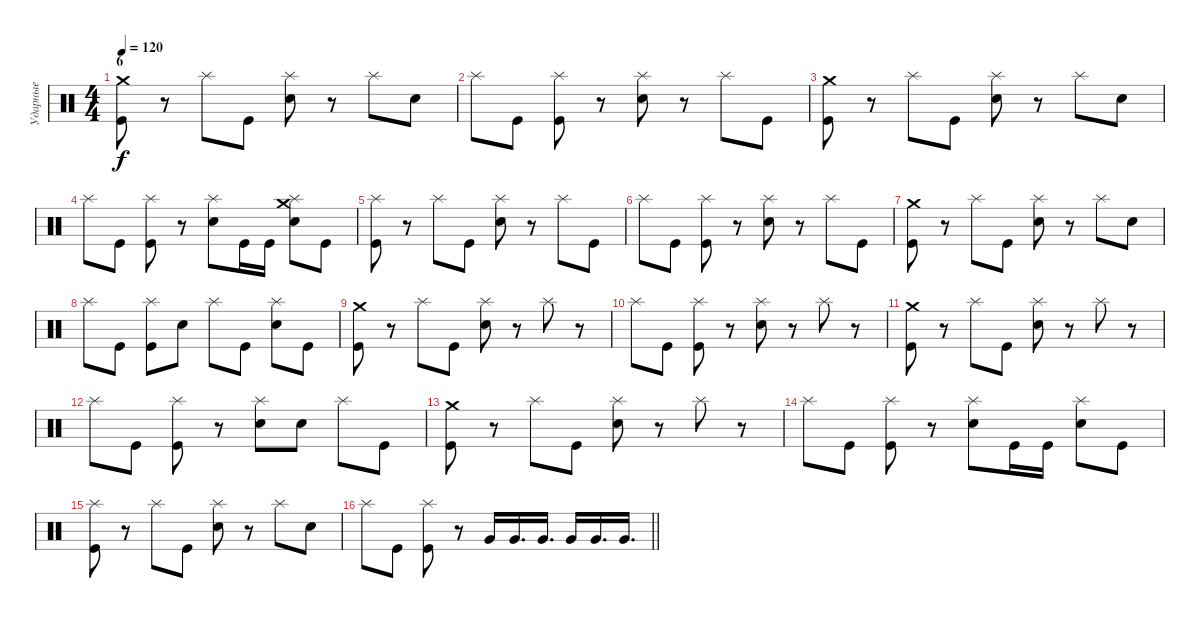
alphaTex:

\track ("Ударные" "Ударные") {instrument percussion}
\staff {score}
\articulation defaults
\ts (4 4)
\section ("" "6")
\tempo 120
\clef neutral
\ks c
("Crash medium (hit)" "Kick (hit)").8{dy f} r.8 "Splash (hit)".8 "Kick (hit)".8 ("Splash (hit)" "Electric Snare (hit)").8 r.8 "Splash (hit)".8 "Electric Snare (hit)".8 |
"Splash (hit)".8 "Kick (hit)".8 ("Splash (hit)" "Kick (hit)").8 r.8 ("Splash (hit)" "Electric Snare (hit)").8 r.8 "Splash (hit)".8 "Kick (hit)".8 |
("Crash medium (hit)" "Kick (hit)").8 r.8 "Splash (hit)".8 "Kick (hit)".8 ("Splash (hit)" "Electric Snare (hit)").8 r.8 "Splash (hit)".8 "Electric Snare (hit)".8 |
"Splash (hit)".8 "Kick (hit)".8 ("Splash (hit)" "Kick (hit)").8 r.8 ("Splash (hit)" "Electric Snare (hit)").8 "Kick (hit)".16 "Kick (hit)".16 ("Crash medium (hit)" "Splash (hit)" "Electric Snare (hit)").8 "Kick (hit)".8 |
("Splash (hit)" "Kick (hit)").8 r.8 "Splash (hit)".8 "Kick (hit)".8 ("Splash (hit)" "Electric Snare (hit)").8 r.8 "Splash (hit)".8 "Kick (hit)".8 |
"Splash (hit)".8 "Kick (hit)".8 ("Splash (hit)" "Kick (hit)").8 r.8 ("Splash (hit)" "Electric Snare (hit)").8 r.8 "Splash (hit)".8 "Kick (hit)".8 |
("Crash medium (hit)" "Kick (hit)").8 r.8 "Splash (hit)".8 "Kick (hit)".8 ("Splash (hit)" "Electric Snare (hit)").8 r.8 "Splash (hit)".8 "Electric Snare (hit)".8 |
"Splash (hit)".8 "Kick (hit)".8 ("Splash (hit)" "Kick (hit)").8 "Electric Snare (hit)".8 "Splash (hit)".8 "Kick (hit)".8 ("Splash (hit)" "Electric Snare (hit)").8 "Kick (hit)".8 |
("Crash medium (hit)" "Kick (hit)").8 r.8 "Splash (hit)".8 "Kick (hit)".8 ("Splash (hit)" "Electric Snare (hit)").8 r.8 "Splash (hit)".8 r.8 |
"Splash (hit)".8 "Kick (hit)".8 ("Splash (hit)" "Kick (hit)").8 r.8 ("Splash (hit)" "Electric Snare (hit)").8 r.8 "Splash (hit)".8 r.8 |
("Crash medium (hit)" "Kick (hit)").8 r.8 "Splash (hit)".8 "Kick (hit)".8 ("Splash (hit)" "Electric Snare (hit)").8 r.8 "Splash (hit)".8 r.8 |
"Splash (hit)".8 "Kick (hit)".8 ("Splash (hit)" "Kick (hit)").8 r.8 ("Splash (hit)" "Electric Snare (hit)").8 "Electric Snare (hit)".8 "Splash (hit)".8 "Kick (hit)".8 |
("Crash medium (hit)" "Kick (hit)").8 r.8 "Splash (hit)".8 "Kick (hit)".8 ("Splash (hit)" "Electric Snare (hit)").8 r.8 "Splash (hit)".8 r.8 |
"Splash (hit)".8 "Kick (hit)".8 ("Splash (hit)" "Kick (hit)").8 r.8 ("Splash (hit)" "Electric Snare (hit)").8 "Kick (hit)".16 "Kick (hit)".16 ("Splash (hit)" "Electric Snare (hit)").8 "Kick (hit)".8 |
("Splash (hit)" "Kick (hit)").8 r.8 "Splash (hit)".8 "Kick (hit)".8 ("Splash (hit)" "Electric Snare (hit)").8 r.8 "Splash (hit)".8 "Electric Snare (hit)".8 |
\barLineRight lightlight "Splash (hit)".8 "Kick (hit)".8
("Splash (hit)" "Kick (hit)").8 r.8 "Very Low Tom (hit)".16 "Very Low Tom (hit)".16{d} "Very Low Tom (hit)".16{d} "Very Low Tom (hit)".16 "Very Low Tom (hit)".16{d} "Very Low Tom (hit)".16{d}
